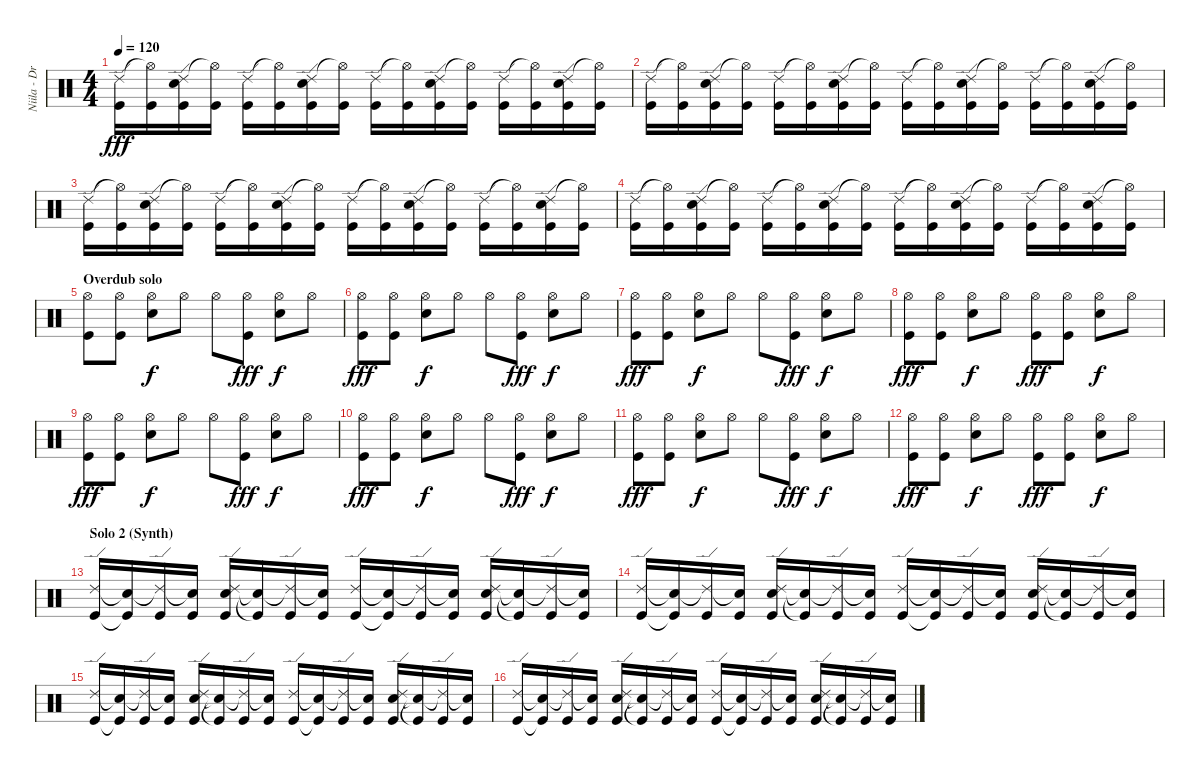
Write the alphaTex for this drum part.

\track ("Niila - Drums" "Niila - Dr") {instrument percussion}
\staff {score}
\articulation defaults
\ts (4 4)
\tempo 120
\clef neutral
\ks c
("Ride (edge) 2" "Kick (hit)").16{dy fff} ("Hi-Hat (open)"{t} "Kick (hit)").16 ("Ride (edge) 2" "Snare (hit) 2" "Kick (hit)").16 ("Hi-Hat (open)"{t} "Kick (hit)").16 ("Ride (edge) 2" "Kick (hit)").16 ("Hi-Hat (open)"{t} "Kick (hit)").16 ("Ride (edge) 2" "Snare (hit) 2" "Kick (hit)").16 ("Hi-Hat (open)"{t} "Kick (hit)").16 ("Ride (edge) 2" "Kick (hit)").16 ("Hi-Hat (open)"{t} "Kick (hit)").16 ("Ride (edge) 2" "Snare (hit) 2" "Kick (hit)").16 ("Hi-Hat (open)"{t} "Kick (hit)").16 ("Ride (edge) 2" "Kick (hit)").16 ("Hi-Hat (open)"{t} "Kick (hit)").16 ("Ride (edge) 2" "Snare (hit) 2" "Kick (hit)").16 ("Hi-Hat (open)"{t} "Kick (hit)").16 |
("Ride (edge) 2" "Kick (hit)").16 ("Hi-Hat (open)"{t} "Kick (hit)").16 ("Ride (edge) 2" "Snare (hit) 2" "Kick (hit)").16 ("Hi-Hat (open)"{t} "Kick (hit)").16 ("Ride (edge) 2" "Kick (hit)").16 ("Hi-Hat (open)"{t} "Kick (hit)").16 ("Ride (edge) 2" "Snare (hit) 2" "Kick (hit)").16 ("Hi-Hat (open)"{t} "Kick (hit)").16 ("Ride (edge) 2" "Kick (hit)").16 ("Hi-Hat (open)"{t} "Kick (hit)").16 ("Ride (edge) 2" "Snare (hit) 2" "Kick (hit)").16 ("Hi-Hat (open)"{t} "Kick (hit)").16 ("Ride (edge) 2" "Kick (hit)").16 ("Hi-Hat (open)"{t} "Kick (hit)").16 ("Ride (edge) 2" "Snare (hit) 2" "Kick (hit)").16 ("Hi-Hat (open)"{t} "Kick (hit)").16 |
("Ride (edge) 2" "Kick (hit)").16 ("Hi-Hat (open)"{t} "Kick (hit)").16 ("Ride (edge) 2" "Snare (hit) 2" "Kick (hit)").16 ("Hi-Hat (open)"{t} "Kick (hit)").16 ("Ride (edge) 2" "Kick (hit)").16 ("Hi-Hat (open)"{t} "Kick (hit)").16 ("Ride (edge) 2" "Snare (hit) 2" "Kick (hit)").16 ("Hi-Hat (open)"{t} "Kick (hit)").16 ("Ride (edge) 2" "Kick (hit)").16 ("Hi-Hat (open)"{t} "Kick (hit)").16 ("Ride (edge) 2" "Snare (hit) 2" "Kick (hit)").16 ("Hi-Hat (open)"{t} "Kick (hit)").16 ("Ride (edge) 2" "Kick (hit)").16 ("Hi-Hat (open)"{t} "Kick (hit)").16 ("Ride (edge) 2" "Snare (hit) 2" "Kick (hit)").16 ("Hi-Hat (open)"{t} "Kick (hit)").16 |
("Ride (edge) 2" "Kick (hit)").16 ("Hi-Hat (open)"{t} "Kick (hit)").16 ("Ride (edge) 2" "Snare (hit) 2" "Kick (hit)").16 ("Hi-Hat (open)"{t} "Kick (hit)").16 ("Ride (edge) 2" "Kick (hit)").16 ("Hi-Hat (open)"{t} "Kick (hit)").16 ("Ride (edge) 2" "Snare (hit) 2" "Kick (hit)").16 ("Hi-Hat (open)"{t} "Kick (hit)").16 ("Ride (edge) 2" "Kick (hit)").16 ("Hi-Hat (open)"{t} "Kick (hit)").16 ("Ride (edge) 2" "Snare (hit) 2" "Kick (hit)").16 ("Hi-Hat (open)"{t} "Kick (hit)").16 ("Ride (edge) 2" "Kick (hit)").16 ("Hi-Hat (open)"{t} "Kick (hit)").16 ("Ride (edge) 2" "Snare (hit) 2" "Kick (hit)").16 ("Hi-Hat (open)"{t} "Kick (hit)").16 |
\section ("" "Overdub solo")
("Hi-Hat (open)" "Kick (hit)").8 ("Hi-Hat (open)" "Kick (hit)").8 ("Hi-Hat (open)" "Snare (hit) 2").8{dy f} "Hi-Hat (open)".8 "Hi-Hat (open)".8 ("Hi-Hat (open)" "Kick (hit)").8{dy fff} ("Hi-Hat (open)" "Snare (hit) 2").8{dy f} "Hi-Hat (open)".8 |
("Hi-Hat (open)" "Kick (hit)").8{dy fff} ("Hi-Hat (open)" "Kick (hit)").8 ("Hi-Hat (open)" "Snare (hit) 2").8{dy f} "Hi-Hat (open)".8 "Hi-Hat (open)".8 ("Hi-Hat (open)" "Kick (hit)").8{dy fff} ("Hi-Hat (open)" "Snare (hit) 2").8{dy f} "Hi-Hat (open)".8 |
("Hi-Hat (open)" "Kick (hit)").8{dy fff} ("Hi-Hat (open)" "Kick (hit)").8 ("Hi-Hat (open)" "Snare (hit) 2").8{dy f} "Hi-Hat (open)".8 "Hi-Hat (open)".8 ("Hi-Hat (open)" "Kick (hit)").8{dy fff} ("Hi-Hat (open)" "Snare (hit) 2").8{dy f} "Hi-Hat (open)".8 |
("Hi-Hat (open)" "Kick (hit)").8{dy fff} ("Hi-Hat (open)" "Kick (hit)").8 ("Hi-Hat (open)" "Snare (hit) 2").8{dy f} "Hi-Hat (open)".8 ("Hi-Hat (open)" "Kick (hit)").8{dy fff} ("Hi-Hat (open)" "Kick (hit)").8 ("Hi-Hat (open)" "Snare (hit) 2").8{dy f} "Hi-Hat (open)".8 |
("Hi-Hat (open)" "Kick (hit)").8{dy fff} ("Hi-Hat (open)" "Kick (hit)").8 ("Hi-Hat (open)" "Snare (hit) 2").8{dy f} "Hi-Hat (open)".8 "Hi-Hat (open)".8 ("Hi-Hat (open)" "Kick (hit)").8{dy fff} ("Hi-Hat (open)" "Snare (hit) 2").8{dy f} "Hi-Hat (open)".8 |
("Hi-Hat (open)" "Kick (hit)").8{dy fff} ("Hi-Hat (open)" "Kick (hit)").8 ("Hi-Hat (open)" "Snare (hit) 2").8{dy f} "Hi-Hat (open)".8 "Hi-Hat (open)".8 ("Hi-Hat (open)" "Kick (hit)").8{dy fff} ("Hi-Hat (open)" "Snare (hit) 2").8{dy f} "Hi-Hat (open)".8 |
("Hi-Hat (open)" "Kick (hit)").8{dy fff} ("Hi-Hat (open)" "Kick (hit)").8 ("Hi-Hat (open)" "Snare (hit) 2").8{dy f} "Hi-Hat (open)".8 "Hi-Hat (open)".8 ("Hi-Hat (open)" "Kick (hit)").8{dy fff} ("Hi-Hat (open)" "Snare (hit) 2").8{dy f} "Hi-Hat (open)".8 |
("Hi-Hat (open)" "Kick (hit)").8{dy fff} ("Hi-Hat (open)" "Kick (hit)").8 ("Hi-Hat (open)" "Snare (hit) 2").8{dy f} "Hi-Hat (open)".8 ("Hi-Hat (open)" "Kick (hit)").8{dy fff} ("Hi-Hat (open)" "Kick (hit)").8 ("Hi-Hat (open)" "Snare (hit) 2").8{dy f} "Hi-Hat (open)".8 |
\section ("" "Solo 2 (Synth)")
("Ride (edge) 2" "Kick (hit)").16 ("Snare (hit)"{t} "Kick (hit)"{t}).16 ("Ride (edge) 2"{t} "Kick (hit)").16 ("Snare (hit)"{t} "Kick (hit)").16 ("Ride (edge) 2" "Snare (hit) 2" "Kick (hit)").16 ("Snare (hit)"{t} "Kick (hit)"{t}).16 ("Ride (edge) 2"{t} "Kick (hit)").16 ("Snare (hit)"{t} "Kick (hit)").16 ("Ride (edge) 2" "Kick (hit)").16 ("Snare (hit)"{t} "Kick (hit)"{t}).16 ("Ride (edge) 2"{t} "Kick (hit)").16 ("Snare (hit)"{t} "Kick (hit)").16 ("Ride (edge) 2" "Snare (hit) 2" "Kick (hit)").16 ("Snare (hit)"{t} "Kick (hit)"{t}).16 ("Ride (edge) 2"{t} "Kick (hit)").16 ("Snare (hit)"{t} "Kick (hit)").16 |
("Ride (edge) 2" "Kick (hit)").16 ("Snare (hit)"{t} "Kick (hit)"{t}).16 ("Ride (edge) 2"{t} "Kick (hit)").16 ("Snare (hit)"{t} "Kick (hit)").16 ("Ride (edge) 2" "Snare (hit) 2" "Kick (hit)").16 ("Snare (hit)"{t} "Kick (hit)"{t}).16 ("Ride (edge) 2"{t} "Kick (hit)").16 ("Snare (hit)"{t} "Kick (hit)").16 ("Ride (edge) 2" "Kick (hit)").16 ("Snare (hit)"{t} "Kick (hit)"{t}).16 ("Ride (edge) 2"{t} "Kick (hit)").16 ("Snare (hit)"{t} "Kick (hit)").16 ("Ride (edge) 2" "Snare (hit) 2" "Kick (hit)").16 ("Snare (hit)"{t} "Kick (hit)"{t}).16 ("Ride (edge) 2"{t} "Kick (hit)").16 ("Snare (hit)"{t} "Kick (hit)").16 |
("Ride (edge) 2" "Kick (hit)").16 ("Snare (hit)"{t} "Kick (hit)"{t}).16 ("Ride (edge) 2"{t} "Kick (hit)").16 ("Snare (hit)"{t} "Kick (hit)").16 ("Ride (edge) 2" "Snare (hit) 2" "Kick (hit)").16 ("Snare (hit)"{t} "Kick (hit)"{t}).16 ("Ride (edge) 2"{t} "Kick (hit)").16 ("Snare (hit)"{t} "Kick (hit)").16 ("Ride (edge) 2" "Kick (hit)").16 ("Snare (hit)"{t} "Kick (hit)"{t}).16 ("Ride (edge) 2"{t} "Kick (hit)").16 ("Snare (hit)"{t} "Kick (hit)").16 ("Ride (edge) 2" "Snare (hit) 2" "Kick (hit)").16 ("Snare (hit)"{t} "Kick (hit)"{t}).16 ("Ride (edge) 2"{t} "Kick (hit)").16 ("Snare (hit)"{t} "Kick (hit)").16 |
("Ride (edge) 2" "Kick (hit)").16 ("Snare (hit)"{t} "Kick (hit)"{t}).16 ("Ride (edge) 2"{t} "Kick (hit)").16 ("Snare (hit)"{t} "Kick (hit)").16 ("Ride (edge) 2" "Snare (hit) 2" "Kick (hit)").16 ("Snare (hit)"{t} "Kick (hit)"{t}).16 ("Ride (edge) 2"{t} "Kick (hit)").16 ("Snare (hit)"{t} "Kick (hit)").16 ("Ride (edge) 2" "Kick (hit)").16 ("Snare (hit)"{t} "Kick (hit)"{t}).16 ("Ride (edge) 2"{t} "Kick (hit)").16 ("Snare (hit)"{t} "Kick (hit)").16 ("Ride (edge) 2" "Snare (hit) 2" "Kick (hit)").16 ("Snare (hit)"{t} "Kick (hit)"{t}).16 ("Ride (edge) 2"{t} "Kick (hit)").16 ("Snare (hit)"{t} "Kick (hit)").16
